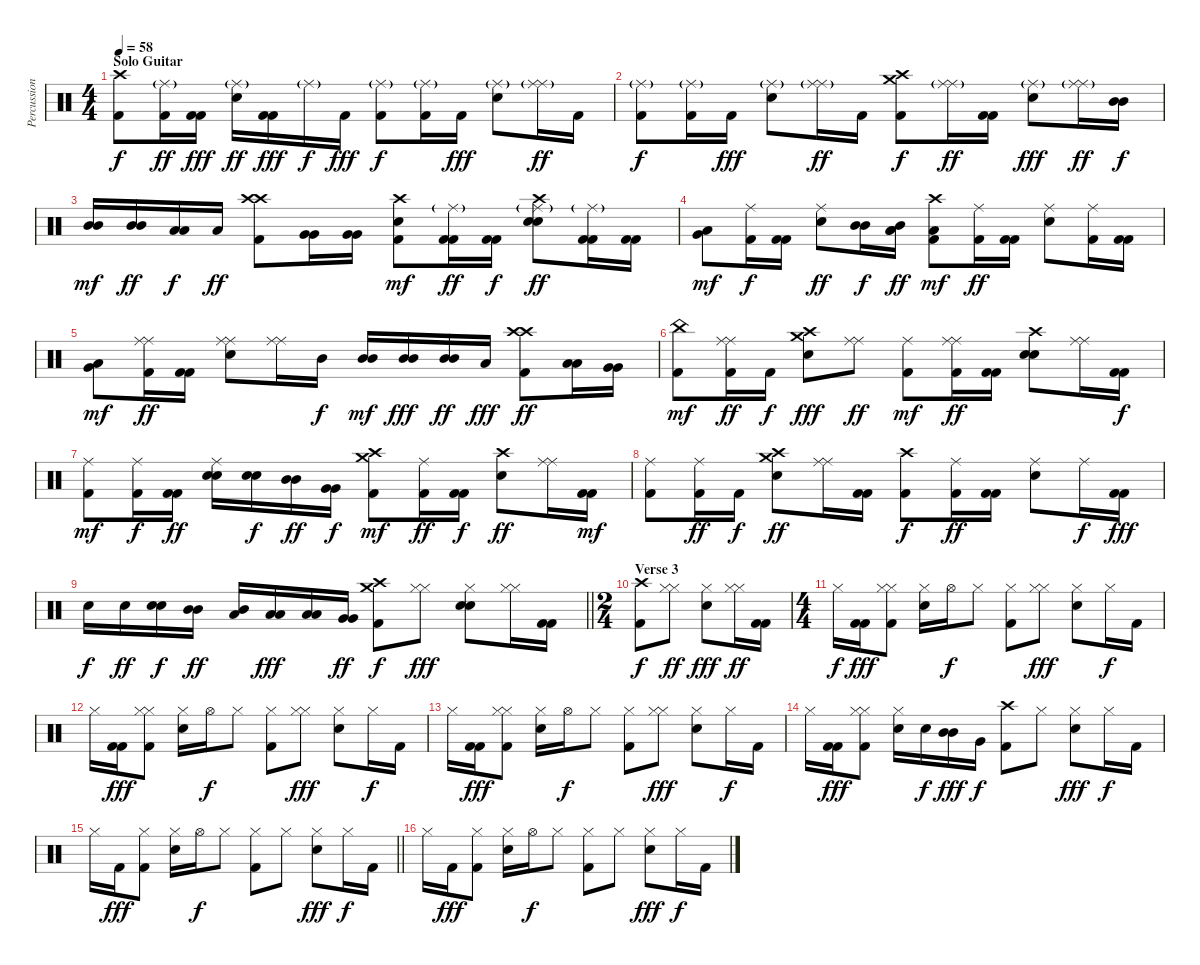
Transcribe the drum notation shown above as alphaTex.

\track ("Percussion" "Percussion") {instrument percussion}
\staff {score}
\articulation defaults
\ts (4 4)
\section ("" "Solo Guitar")
\tempo 58
\clef neutral
\ks c
("Kick (hit) 2" "Crash high (hit)").8{dy f} ("Kick (hit) 2" "Ride (middle)"{g}).16{dy ff} ("Kick (hit) 2" "Kick (hit) 2").16{dy fff} ("Electric Snare (hit)" "Ride (middle)"{g}).16{dy ff} ("Kick (hit) 2" "Kick (hit) 2").16{dy fff} "Ride (middle)"{g}.16{dy f} "Kick (hit) 2".16{dy fff} ("Kick (hit) 2" "Ride (middle)"{g}).8{dy f} ("Kick (hit) 2" "Ride (middle)"{g}).16 "Kick (hit) 2".16{dy fff} ("Electric Snare (hit)" "Ride (middle)"{g}).8 ("Ride (middle)" "Ride (middle)"{g}).16{dy ff} "Kick (hit) 2".16 |
("Kick (hit) 2" "Ride (middle)"{g}).8{dy f} ("Kick (hit) 2" "Ride (middle)"{g}).16 "Kick (hit) 2".16{dy fff} ("Electric Snare (hit)" "Ride (middle)"{g}).8 ("Ride (middle)" "Ride (middle)"{g}).16{dy ff} "Kick (hit) 2".16 ("Kick (hit) 2" "Crash high (hit)" "Crash medium (hit)").8{dy f} ("Ride (middle)" "Ride (middle)"{g}).16{dy ff} ("Kick (hit) 2" "Kick (hit) 2").16 ("Electric Snare (hit)" "Ride (middle)"{g}).8{dy fff} ("Ride (middle)" "Ride (middle)"{g}).16{dy ff} ("Mid Tom (hit)" "Mid Tom (hit)").16{dy f} |
("Mid Tom (hit)" "Mid Tom (hit)").16{dy mf} ("Mid Tom (hit)" "Mid Tom (hit)").16{dy ff} ("Low Tom (hit)" "Low Tom (hit)").16{dy f} "Low Tom (hit)".16{dy ff} ("Kick (hit) 2" "Crash high (hit)" "Crash high (hit)").8 ("Very Low Tom (hit)" "Very Low Tom (hit)").16 ("Very Low Tom (hit)" "Very Low Tom (hit)").16 ("Electric Snare (hit)" "Crash high (hit)" "Kick (hit) 2").8{dy mf} ("Ride (middle)"{g} "Kick (hit) 2" "Kick (hit) 2").16{dy ff} ("Kick (hit) 2" "Kick (hit) 2").16{dy f} ("Ride (middle)"{g} "Electric Snare (hit)" "Crash high (hit)" "Electric Snare (hit)").8{dy ff} ("Ride (middle)"{g} "Kick (hit) 2" "Kick (hit) 2").16 ("Kick (hit) 2" "Kick (hit) 2").16 |
("Low Floor Tom (hit)" "Very Low Tom (hit)").8{dy mf} ("Kick (hit) 2" "Ride (middle)").16{dy f} ("Kick (hit) 2" "Kick (hit) 2").16 ("Electric Snare (hit)" "Ride (middle)").8{dy ff} ("Mid Tom (hit)" "Mid Tom (hit)").16{dy f} ("Mid Tom (hit)" "Low Tom (hit)" "Low Tom (hit)").16{dy ff} ("Kick (hit) 2" "Low Tom (hit)" "Crash high (hit)").8{dy mf} ("Kick (hit) 2" "Ride (middle)").16{dy ff} ("Kick (hit) 2" "Kick (hit) 2").16 ("Electric Snare (hit)" "Ride (middle)").8 ("Kick (hit) 2" "Ride (middle)").16 ("Kick (hit) 2" "Kick (hit) 2").16 |
("Low Floor Tom (hit)" "Very Low Tom (hit)").8{dy mf} ("Kick (hit) 2" "Ride (middle)" "Ride (middle)").16{dy ff} ("Kick (hit) 2" "Kick (hit) 2").16 ("Electric Snare (hit)" "Ride (middle)" "Ride (middle)").8 ("Ride (middle)" "Ride (middle)").16 "Mid Tom (hit)".16{dy f} ("Mid Tom (hit)" "Mid Tom (hit)").16{dy mf} ("Mid Tom (hit)" "Mid Tom (hit)").16{dy fff} ("Mid Tom (hit)" "Mid Tom (hit)").16{dy ff} "Low Tom (hit)".16{dy fff} ("Crash high (hit)" "Kick (hit) 2" "Crash high (hit)").8{dy ff} ("Low Tom (hit)" "Low Tom (hit)").16 ("Very Low Tom (hit)" "Very Low Tom (hit)").16 |
("China (hit)" "Kick (hit) 2").8{dy mf} ("Kick (hit) 2" "Ride (middle)" "Ride (middle)").16{dy ff} "Kick (hit) 2".16{dy f} ("Electric Snare (hit)" "Crash high (hit)" "Crash medium (hit)").8{dy fff} ("Ride (middle)" "Ride (middle)").8{dy ff} ("Ride (middle)" "Kick (hit) 2").8{dy mf} ("Ride (middle)" "Kick (hit) 2" "Ride (middle)").16{dy ff} ("Kick (hit) 2" "Kick (hit) 2").16 ("Crash high (hit)" "Electric Snare (hit)" "Electric Snare (hit)").8 ("Ride (middle)" "Ride (middle)").16 ("Kick (hit) 2" "Kick (hit) 2").16{dy f} |
("Kick (hit) 2" "Ride (middle)").8{dy mf} ("Ride (middle)" "Kick (hit) 2").16{dy f} ("Kick (hit) 2" "Kick (hit) 2").16{dy ff} ("Electric Snare (hit)" "Ride (middle)" "Electric Snare (hit)").16 ("Electric Snare (hit)" "Electric Snare (hit)").16{dy f} ("Mid Tom (hit)" "Mid Tom (hit)").16{dy ff} ("Very Low Tom (hit)" "Very Low Tom (hit)").16{dy f} ("Crash high (hit)" "Crash medium (hit)" "Kick (hit) 2").8{dy mf} ("Ride (middle)" "Kick (hit) 2").16{dy ff} ("Kick (hit) 2" "Kick (hit) 2").16{dy f} ("Electric Snare (hit)" "Crash high (hit)").8{dy ff} ("Ride (middle)" "Ride (middle)").16 ("Kick (hit) 2" "Kick (hit) 2").16{dy mf} |
("Kick (hit) 2" "Ride (middle)").8 ("Kick (hit) 2" "Ride (middle)").16{dy ff} "Kick (hit) 2".16{dy f} ("Electric Snare (hit)" "Crash high (hit)" "Crash medium (hit)").8{dy ff} ("Ride (middle)" "Ride (middle)").16 ("Kick (hit) 2" "Kick (hit) 2").16 ("Kick (hit) 2" "Crash high (hit)").8{dy f} ("Kick (hit) 2" "Ride (middle)").16{dy ff} ("Kick (hit) 2" "Kick (hit) 2").16 ("Ride (middle)" "Electric Snare (hit)").8 "Ride (middle)".16{dy f} ("Kick (hit) 2" "Kick (hit) 2").16{dy fff} |
\barLineRight lightlight "Electric Snare (hit)".16{dy f} "Electric Snare (hit)".16{dy ff}
("Electric Snare (hit)" "Electric Snare (hit)").16{dy f} ("Mid Tom (hit)" "Mid Tom (hit)").16{dy ff} ("Mid Tom (hit)" "Low Tom (hit)").16 ("Low Tom (hit)" "Low Tom (hit)").16{dy fff} ("Low Tom (hit)" "Low Tom (hit)").16 ("Very Low Tom (hit)" "Very Low Tom (hit)").16{dy ff} ("Kick (hit) 2" "Crash high (hit)" "Crash medium (hit)").8{dy f} ("Hi-Hat (closed)" "Hi-Hat (closed)").8{dy fff} ("Electric Snare (hit)" "Hi-Hat (closed)" "Electric Snare (hit)").8 ("Hi-Hat (closed)" "Hi-Hat (closed)").16 ("Kick (hit) 2" "Kick (hit) 2").16 |
\ts (2 4)
\section ("" "Verse 3")
("Kick (hit) 2" "Crash high (hit)").8{dy f} ("Hi-Hat (closed)" "Hi-Hat (closed)").8{dy ff} ("Electric Snare (hit)" "Hi-Hat (closed)").8{dy fff} ("Hi-Hat (closed)" "Hi-Hat (closed)").16{dy ff} ("Kick (hit) 2" "Kick (hit) 2").16 |
\ts (4 4)
"Hi-Hat (closed)".16{dy f} ("Kick (hit) 2" "Kick (hit) 2").16{dy fff} ("Hi-Hat (closed)" "Kick (hit) 2" "Hi-Hat (closed)").8 ("Electric Snare (hit)" "Hi-Hat (closed)").16 "Hi-Hat (open)".16{dy f} "Hi-Hat (closed)".8 ("Kick (hit) 2" "Hi-Hat (closed)").8 ("Hi-Hat (closed)" "Hi-Hat (closed)").8{dy fff} ("Hi-Hat (closed)" "Electric Snare (hit)").8 "Hi-Hat (closed)".16{dy f} "Kick (hit) 2".16 |
"Hi-Hat (closed)".16 ("Kick (hit) 2" "Kick (hit) 2").16{dy fff} ("Hi-Hat (closed)" "Kick (hit) 2" "Hi-Hat (closed)").8 ("Electric Snare (hit)" "Hi-Hat (closed)").16 "Hi-Hat (open)".16{dy f} "Hi-Hat (closed)".8 ("Kick (hit) 2" "Hi-Hat (closed)").8 ("Hi-Hat (closed)" "Hi-Hat (closed)").8{dy fff} ("Hi-Hat (closed)" "Electric Snare (hit)").8 "Hi-Hat (closed)".16{dy f} "Kick (hit) 2".16 |
"Hi-Hat (closed)".16 ("Kick (hit) 2" "Kick (hit) 2").16{dy fff} ("Hi-Hat (closed)" "Kick (hit) 2" "Hi-Hat (closed)").8 ("Electric Snare (hit)" "Hi-Hat (closed)").16 "Hi-Hat (open)".16{dy f} "Hi-Hat (closed)".8 ("Kick (hit) 2" "Hi-Hat (closed)").8 ("Hi-Hat (closed)" "Hi-Hat (closed)").8{dy fff} ("Hi-Hat (closed)" "Electric Snare (hit)").8 "Hi-Hat (closed)".16{dy f} "Kick (hit) 2".16 |
"Hi-Hat (closed)".16 ("Kick (hit) 2" "Kick (hit) 2").16{dy fff} ("Kick (hit) 2" "Hi-Hat (closed)" "Hi-Hat (closed)").8 ("Electric Snare (hit)" "Hi-Hat (closed)").16 "Electric Snare (hit)".16{dy f} ("Mid Tom (hit)" "Mid Tom (hit)").16{dy fff} "Very Low Tom (hit)".16{dy f} ("Kick (hit) 2" "Crash high (hit)").8 "Hi-Hat (closed)".8 ("Hi-Hat (closed)" "Electric Snare (hit)").8{dy fff} "Hi-Hat (closed)".16{dy f} "Kick (hit) 2".16 |
\barLineRight lightlight "Hi-Hat (closed)".16 "Kick (hit) 2".16{dy fff}
("Kick (hit) 2" "Hi-Hat (closed)").8 ("Electric Snare (hit)" "Hi-Hat (closed)").16 "Hi-Hat (open)".16{dy f} "Hi-Hat (closed)".8 ("Kick (hit) 2" "Hi-Hat (closed)").8 "Hi-Hat (closed)".8 ("Hi-Hat (closed)" "Electric Snare (hit)").8{dy fff} "Hi-Hat (closed)".16{dy f} "Kick (hit) 2".16 |
"Hi-Hat (closed)".16 "Kick (hit) 2".16{dy fff} ("Kick (hit) 2" "Hi-Hat (closed)").8 ("Electric Snare (hit)" "Hi-Hat (closed)").16 "Hi-Hat (open)".16{dy f} "Hi-Hat (closed)".8 ("Kick (hit) 2" "Hi-Hat (closed)").8 "Hi-Hat (closed)".8 ("Hi-Hat (closed)" "Electric Snare (hit)").8{dy fff} "Hi-Hat (closed)".16{dy f} "Kick (hit) 2".16
